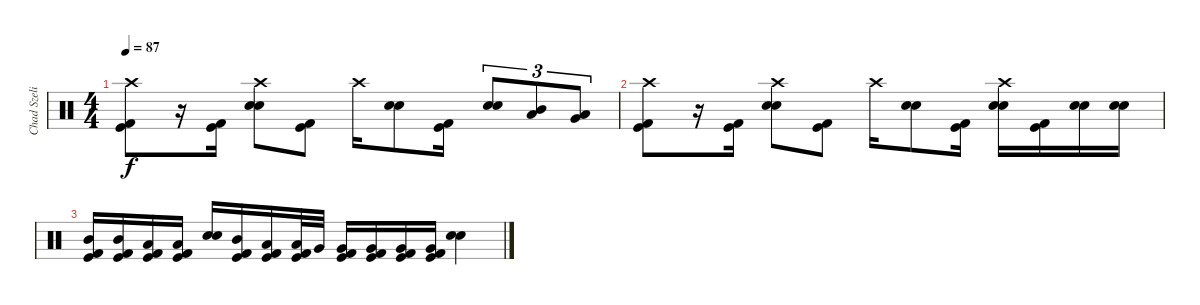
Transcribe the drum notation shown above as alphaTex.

\track ("Chad Szeliga" "Chad Szeli") {instrument percussion}
\staff {score}
\articulation defaults
\ts (4 4)
\tempo 87
\clef neutral
\ks c
("Crash high (hit)" "Kick (hit) 2" "Kick (hit)").8{dy f} r.16 ("Kick (hit) 2" "Kick (hit)").16{beam Down} ("Crash high (hit)" "Snare (hit) 2" "Snare (hit) 2").8 ("Kick (hit) 2" "Kick (hit)").8 "Crash high (hit)".16 ("Snare (hit) 2" "Snare (hit) 2").8 ("Kick (hit) 2" "Kick (hit)").16 ("Snare (hit) 2" "Snare (hit) 2").8{tu (3 2)} ("Mid Tom (hit)" "Low Tom (hit)").8{tu (3 2)} ("Very Low Tom (hit)" "Low Tom (hit)").8{tu (3 2)} |
("Crash high (hit)" "Kick (hit) 2" "Kick (hit)").8 r.16 ("Kick (hit) 2" "Kick (hit)").16{beam Down} ("Crash high (hit)" "Snare (hit) 2" "Snare (hit) 2").8 ("Kick (hit) 2" "Kick (hit)").8 "Crash high (hit)".16 ("Snare (hit) 2" "Snare (hit) 2").8 ("Kick (hit) 2" "Kick (hit)").16 ("Crash high (hit)" "Snare (hit) 2" "Snare (hit) 2").16 ("Kick (hit) 2" "Kick (hit)").16 ("Snare (hit) 2" "Snare (hit) 2").16 ("Snare (hit) 2" "Snare (hit) 2").16 |
("Kick (hit) 2" "Kick (hit)" "Mid Tom (hit)").16 ("Kick (hit) 2" "Kick (hit)" "Mid Tom (hit)").16 ("Kick (hit) 2" "Kick (hit)" "Low Tom (hit)").16 ("Kick (hit) 2" "Kick (hit)" "Low Tom (hit)").16 ("Snare (hit) 2" "Snare (hit) 2").16 ("Kick (hit) 2" "Kick (hit)" "Mid Tom (hit)").16 ("Kick (hit) 2" "Kick (hit)" "Low Tom (hit)").16 ("Kick (hit) 2" "Kick (hit)" "Low Tom (hit)").32 "Very Low Tom (hit)".32 ("Kick (hit) 2" "Kick (hit)" "Very Low Tom (hit)").16 ("Kick (hit) 2" "Kick (hit)" "Very Low Tom (hit)").16 ("Kick (hit) 2" "Kick (hit)" "Very Low Tom (hit)").16 ("Kick (hit) 2" "Kick (hit)" "Very Low Tom (hit)").16 ("Snare (hit) 2" "Snare (hit) 2").4
